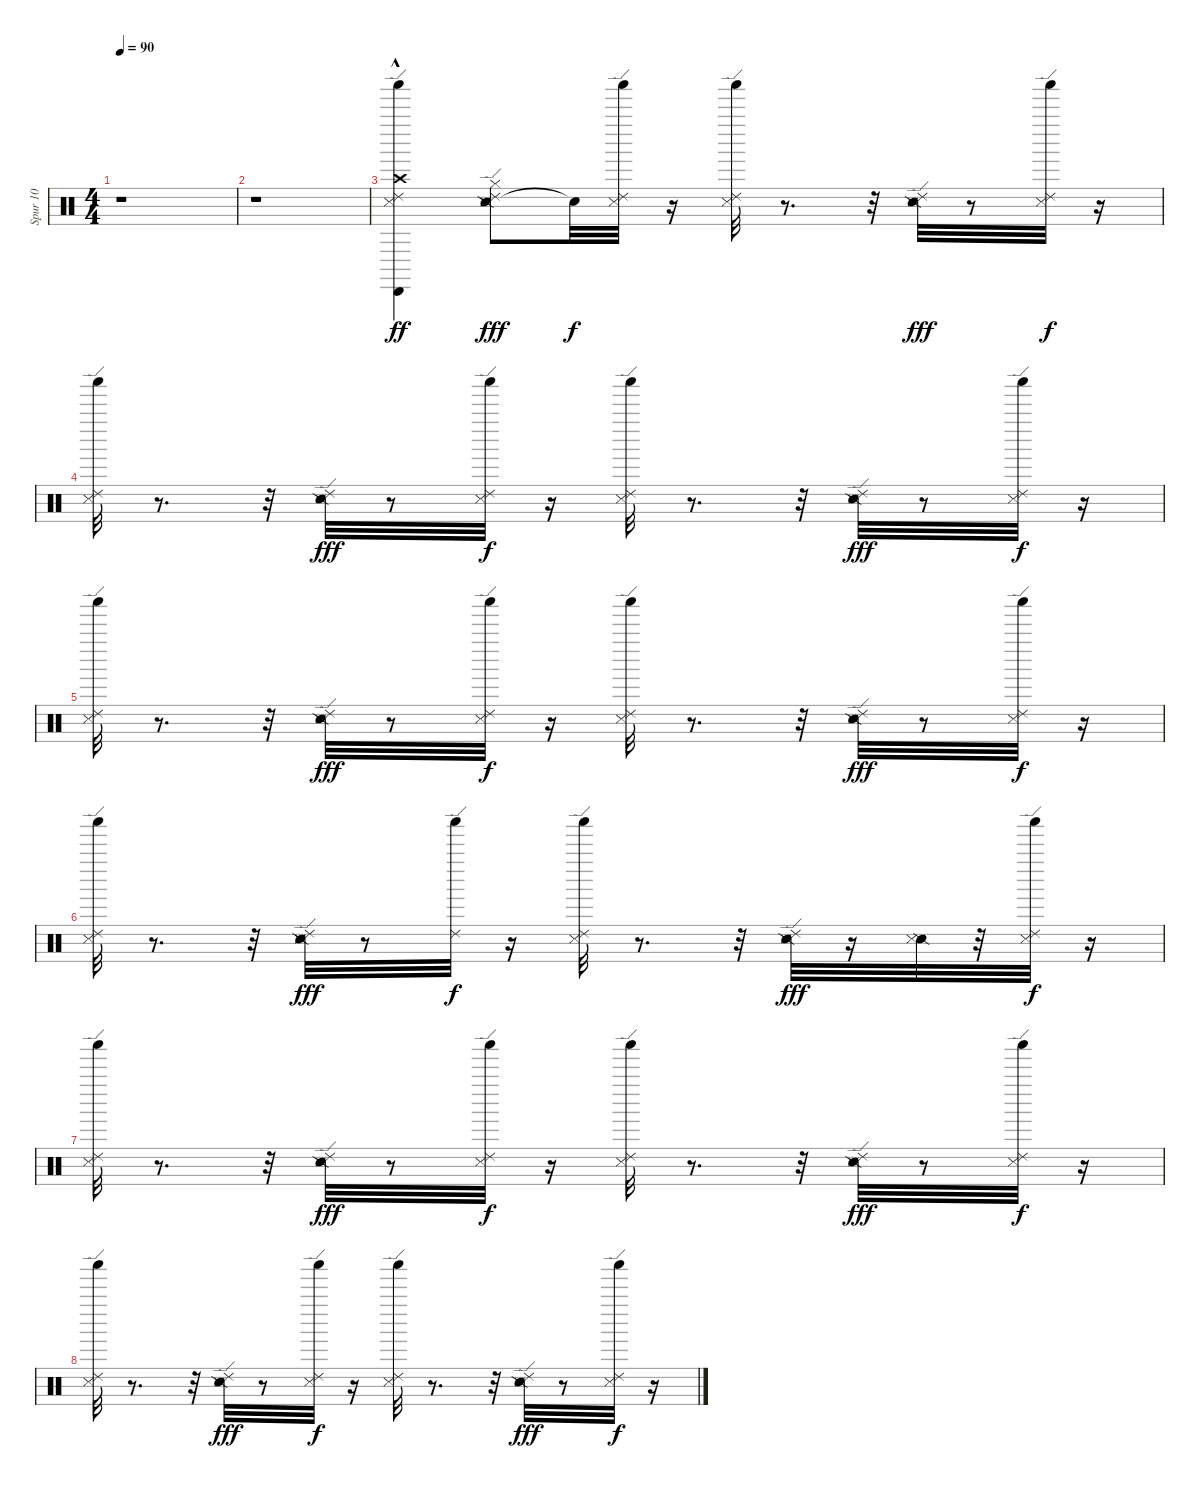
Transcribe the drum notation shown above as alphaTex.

\track ("Spur 10" "Spur 10") {instrument percussion}
\staff {score}
\articulation defaults
\ts (4 4)
\tempo 90
\clef neutral
\ks c
r.1{dy ff} |
r.1 |
("Ride (edge) 2" "Shaker (hit)" "Cabasa (hit)" "Metronome (hit)" "Crash high (hit)"{hac}).4 ("Snare (side stick) 3" "Hi-Hat (closed)" "Ride (edge) 2" "Snare (side stick) 2" "Snare (side stick) 3").8{dy fff} "Snare (hit)"{t}.32{dy f} ("Ride (edge) 2" "Shaker (hit)" "Metronome (hit)").32 r.16 ("Ride (edge) 2" "Shaker (hit)" "Metronome (hit)").32 r.8{d} r.32 ("Ride (edge) 2" "Snare (side stick) 2" "Snare (side stick) 3").32{dy fff} r.8 ("Ride (edge) 2" "Shaker (hit)" "Metronome (hit)").32{dy f} r.16 |
("Ride (edge) 2" "Shaker (hit)" "Metronome (hit)").32 r.8{d} r.32 ("Ride (edge) 2" "Snare (side stick) 2" "Snare (side stick) 3").32{dy fff} r.8 ("Shaker (hit)" "Ride (edge) 2" "Metronome (hit)").32{dy f} r.16 ("Ride (edge) 2" "Shaker (hit)" "Metronome (hit)").32 r.8{d} r.32 ("Ride (edge) 2" "Snare (side stick) 2" "Snare (side stick) 3").32{dy fff} r.8 ("Ride (edge) 2" "Shaker (hit)" "Metronome (hit)").32{dy f} r.16 |
("Shaker (hit)" "Ride (edge) 2" "Metronome (hit)").32 r.8{d} r.32 ("Ride (edge) 2" "Snare (side stick) 2" "Snare (side stick) 3").32{dy fff} r.8 ("Ride (edge) 2" "Shaker (hit)" "Metronome (hit)").32{dy f} r.16 ("Ride (edge) 2" "Shaker (hit)" "Metronome (hit)").32 r.8{d} r.32 ("Ride (edge) 2" "Snare (side stick) 2" "Snare (side stick) 3").32{dy fff} r.8 ("Shaker (hit)" "Ride (edge) 2" "Metronome (hit)").32{dy f} r.16 |
("Ride (edge) 2" "Shaker (hit)" "Metronome (hit)").32 r.8{d} r.32 ("Ride (edge) 2" "Snare (side stick) 2" "Metronome (hit)" "Snare (side stick) 3").32{dy fff} r.8 ("Ride (edge) 2" "Shaker (hit)").32{dy f} r.16 ("Ride (edge) 2" "Shaker (hit)" "Metronome (hit)").32 r.8{d} r.32 ("Ride (edge) 2" "Snare (side stick) 2" "Snare (side stick) 3").32{dy fff} r.16 ("Snare (side stick) 2" "Snare (side stick) 3").32 r.32 ("Ride (edge) 2" "Shaker (hit)" "Metronome (hit)").32{dy f} r.16 |
("Ride (edge) 2" "Shaker (hit)" "Metronome (hit)").32 r.8{d} r.32 ("Ride (edge) 2" "Snare (side stick) 2" "Snare (side stick) 3").32{dy fff} r.8 ("Shaker (hit)" "Ride (edge) 2" "Metronome (hit)").32{dy f} r.16 ("Ride (edge) 2" "Shaker (hit)" "Metronome (hit)").32 r.8{d} r.32 ("Ride (edge) 2" "Snare (side stick) 2" "Snare (side stick) 3").32{dy fff} r.8 ("Ride (edge) 2" "Shaker (hit)" "Metronome (hit)").32{dy f} r.16 |
("Ride (edge) 2" "Shaker (hit)" "Metronome (hit)").32 r.8{d} r.32 ("Ride (edge) 2" "Snare (side stick) 2" "Snare (side stick) 3").32{dy fff} r.8 ("Ride (edge) 2" "Shaker (hit)" "Metronome (hit)").32{dy f} r.16 ("Ride (edge) 2" "Shaker (hit)" "Metronome (hit)").32 r.8{d} r.32 ("Ride (edge) 2" "Snare (side stick) 2" "Snare (side stick) 3").32{dy fff} r.8 ("Shaker (hit)" "Ride (edge) 2" "Metronome (hit)").32{dy f} r.16
